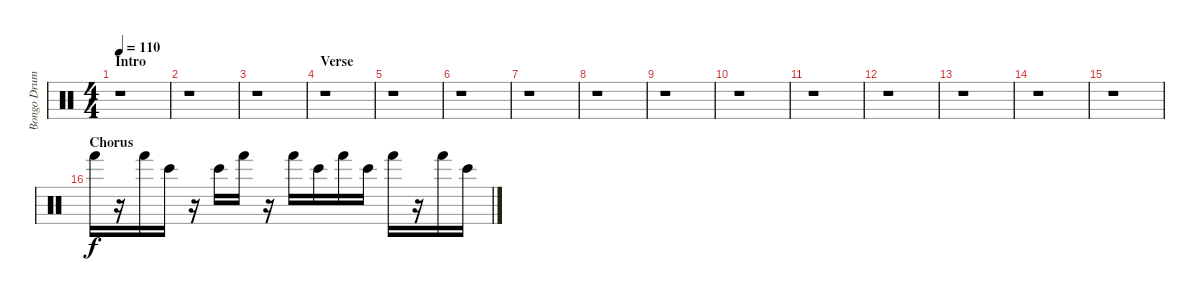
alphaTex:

\track ("Bongo Drums" "Bongo Drum") {instrument percussion}
\staff {score}
\articulation defaults
\ts (4 4)
\section ("" "Intro")
\tempo 110
\clef neutral
\ks c
r.1{dy f} |
r.1 |
r.1 |
\section ("" "Verse")
r.1 |
r.1 |
r.1 |
r.1 |
r.1 |
r.1 |
r.1 |
r.1 |
r.1 |
r.1 |
r.1 |
r.1 |
\section ("" "Chorus")
"Hand (hit)".16 r.16 "Hand (hit)".16 "Bongo High (hit)".16 r.16 "Bongo High (hit)".16 "Hand (hit)".16 r.16 "Hand (hit)".16 "Bongo High (hit)".16 "Hand (hit)".16 "Bongo High (hit)".16 "Hand (hit)".16 r.16 "Hand (hit)".16 "Bongo High (hit)".16
